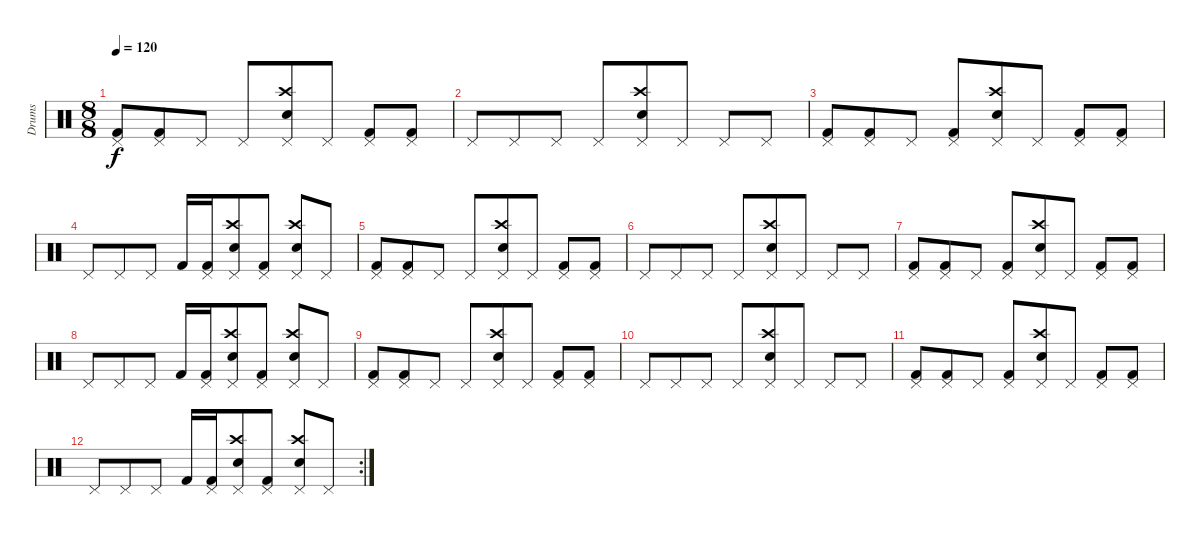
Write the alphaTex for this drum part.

\track ("Drums" "Drums") {instrument percussion}
\staff {score}
\articulation defaults
\ts (8 8)
\tempo 120
\clef neutral
\ks c
("Kick (hit) 2" "Pedal Hi-Hat (hit)").8{dy f} ("Kick (hit) 2" "Pedal Hi-Hat (hit)").8 "Pedal Hi-Hat (hit)".8 "Pedal Hi-Hat (hit)".8 ("Crash high (hit)" "Snare (hit) 2" "Pedal Hi-Hat (hit)").8 "Pedal Hi-Hat (hit)".8 ("Kick (hit) 2" "Pedal Hi-Hat (hit)").8 ("Kick (hit) 2" "Pedal Hi-Hat (hit)").8 |
"Pedal Hi-Hat (hit)".8 "Pedal Hi-Hat (hit)".8 "Pedal Hi-Hat (hit)".8 "Pedal Hi-Hat (hit)".8 ("Crash high (hit)" "Snare (hit) 2" "Pedal Hi-Hat (hit)").8 "Pedal Hi-Hat (hit)".8 "Pedal Hi-Hat (hit)".8 "Pedal Hi-Hat (hit)".8 |
("Kick (hit) 2" "Pedal Hi-Hat (hit)").8 ("Kick (hit) 2" "Pedal Hi-Hat (hit)").8 "Pedal Hi-Hat (hit)".8 ("Kick (hit) 2" "Pedal Hi-Hat (hit)").8 ("Crash high (hit)" "Snare (hit) 2" "Pedal Hi-Hat (hit)").8 "Pedal Hi-Hat (hit)".8 ("Kick (hit) 2" "Pedal Hi-Hat (hit)").8 ("Kick (hit) 2" "Pedal Hi-Hat (hit)").8 |
"Pedal Hi-Hat (hit)".8 "Pedal Hi-Hat (hit)".8 "Pedal Hi-Hat (hit)".8 "Kick (hit) 2".16 ("Kick (hit) 2" "Pedal Hi-Hat (hit)").16 ("Crash high (hit)" "Snare (hit) 2" "Pedal Hi-Hat (hit)").8 ("Kick (hit) 2" "Pedal Hi-Hat (hit)").8 ("Crash high (hit)" "Snare (hit) 2" "Pedal Hi-Hat (hit)").8 "Pedal Hi-Hat (hit)".8 |
("Kick (hit) 2" "Pedal Hi-Hat (hit)").8 ("Kick (hit) 2" "Pedal Hi-Hat (hit)").8 "Pedal Hi-Hat (hit)".8 "Pedal Hi-Hat (hit)".8 ("Crash high (hit)" "Snare (hit) 2" "Pedal Hi-Hat (hit)").8 "Pedal Hi-Hat (hit)".8 ("Kick (hit) 2" "Pedal Hi-Hat (hit)").8 ("Kick (hit) 2" "Pedal Hi-Hat (hit)").8 |
"Pedal Hi-Hat (hit)".8 "Pedal Hi-Hat (hit)".8 "Pedal Hi-Hat (hit)".8 "Pedal Hi-Hat (hit)".8 ("Crash high (hit)" "Snare (hit) 2" "Pedal Hi-Hat (hit)").8 "Pedal Hi-Hat (hit)".8 "Pedal Hi-Hat (hit)".8 "Pedal Hi-Hat (hit)".8 |
("Kick (hit) 2" "Pedal Hi-Hat (hit)").8 ("Kick (hit) 2" "Pedal Hi-Hat (hit)").8 "Pedal Hi-Hat (hit)".8 ("Kick (hit) 2" "Pedal Hi-Hat (hit)").8 ("Crash high (hit)" "Snare (hit) 2" "Pedal Hi-Hat (hit)").8 "Pedal Hi-Hat (hit)".8 ("Kick (hit) 2" "Pedal Hi-Hat (hit)").8 ("Kick (hit) 2" "Pedal Hi-Hat (hit)").8 |
"Pedal Hi-Hat (hit)".8 "Pedal Hi-Hat (hit)".8 "Pedal Hi-Hat (hit)".8 "Kick (hit) 2".16 ("Kick (hit) 2" "Pedal Hi-Hat (hit)").16 ("Crash high (hit)" "Snare (hit) 2" "Pedal Hi-Hat (hit)").8 ("Kick (hit) 2" "Pedal Hi-Hat (hit)").8 ("Crash high (hit)" "Snare (hit) 2" "Pedal Hi-Hat (hit)").8 "Pedal Hi-Hat (hit)".8 |
("Kick (hit) 2" "Pedal Hi-Hat (hit)").8 ("Kick (hit) 2" "Pedal Hi-Hat (hit)").8 "Pedal Hi-Hat (hit)".8 "Pedal Hi-Hat (hit)".8 ("Crash high (hit)" "Snare (hit) 2" "Pedal Hi-Hat (hit)").8 "Pedal Hi-Hat (hit)".8 ("Kick (hit) 2" "Pedal Hi-Hat (hit)").8 ("Kick (hit) 2" "Pedal Hi-Hat (hit)").8 |
"Pedal Hi-Hat (hit)".8 "Pedal Hi-Hat (hit)".8 "Pedal Hi-Hat (hit)".8 "Pedal Hi-Hat (hit)".8 ("Crash high (hit)" "Snare (hit) 2" "Pedal Hi-Hat (hit)").8 "Pedal Hi-Hat (hit)".8 "Pedal Hi-Hat (hit)".8 "Pedal Hi-Hat (hit)".8 |
("Kick (hit) 2" "Pedal Hi-Hat (hit)").8 ("Kick (hit) 2" "Pedal Hi-Hat (hit)").8 "Pedal Hi-Hat (hit)".8 ("Kick (hit) 2" "Pedal Hi-Hat (hit)").8 ("Crash high (hit)" "Snare (hit) 2" "Pedal Hi-Hat (hit)").8 "Pedal Hi-Hat (hit)".8 ("Kick (hit) 2" "Pedal Hi-Hat (hit)").8 ("Kick (hit) 2" "Pedal Hi-Hat (hit)").8 |
\rc 2 "Pedal Hi-Hat (hit)".8 "Pedal Hi-Hat (hit)".8 "Pedal Hi-Hat (hit)".8 "Kick (hit) 2".16
("Kick (hit) 2" "Pedal Hi-Hat (hit)").16 ("Crash high (hit)" "Snare (hit) 2" "Pedal Hi-Hat (hit)").8 ("Kick (hit) 2" "Pedal Hi-Hat (hit)").8 ("Crash high (hit)" "Snare (hit) 2" "Pedal Hi-Hat (hit)").8 "Pedal Hi-Hat (hit)".8
